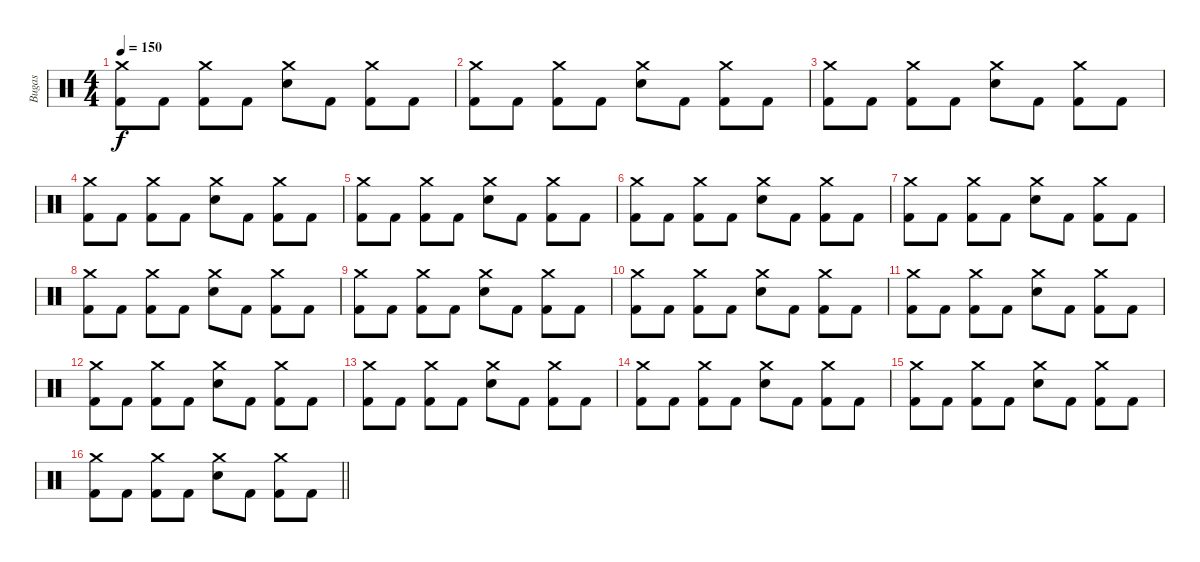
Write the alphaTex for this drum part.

\track ("Bugas" "Bugas") {instrument percussion}
\staff {score}
\articulation defaults
\ts (4 4)
\tempo 150
\clef neutral
\ks c
("Crash medium (hit)" "Kick (hit) 2").8{dy f} "Kick (hit) 2".8 ("Crash medium (hit)" "Kick (hit) 2").8 "Kick (hit) 2".8 ("Crash medium (hit)" "Electric Snare (hit)").8 "Kick (hit) 2".8 ("Crash medium (hit)" "Kick (hit) 2").8 "Kick (hit) 2".8 |
("Crash medium (hit)" "Kick (hit) 2").8 "Kick (hit) 2".8 ("Crash medium (hit)" "Kick (hit) 2").8 "Kick (hit) 2".8 ("Crash medium (hit)" "Electric Snare (hit)").8 "Kick (hit) 2".8 ("Crash medium (hit)" "Kick (hit) 2").8 "Kick (hit) 2".8 |
("Crash medium (hit)" "Kick (hit) 2").8 "Kick (hit) 2".8 ("Crash medium (hit)" "Kick (hit) 2").8 "Kick (hit) 2".8 ("Crash medium (hit)" "Electric Snare (hit)").8 "Kick (hit) 2".8 ("Crash medium (hit)" "Kick (hit) 2").8 "Kick (hit) 2".8 |
("Crash medium (hit)" "Kick (hit) 2").8 "Kick (hit) 2".8 ("Crash medium (hit)" "Kick (hit) 2").8 "Kick (hit) 2".8 ("Crash medium (hit)" "Electric Snare (hit)").8 "Kick (hit) 2".8 ("Crash medium (hit)" "Kick (hit) 2").8 "Kick (hit) 2".8 |
("Crash medium (hit)" "Kick (hit) 2").8 "Kick (hit) 2".8 ("Crash medium (hit)" "Kick (hit) 2").8 "Kick (hit) 2".8 ("Crash medium (hit)" "Electric Snare (hit)").8 "Kick (hit) 2".8 ("Crash medium (hit)" "Kick (hit) 2").8 "Kick (hit) 2".8 |
("Crash medium (hit)" "Kick (hit) 2").8 "Kick (hit) 2".8 ("Crash medium (hit)" "Kick (hit) 2").8 "Kick (hit) 2".8 ("Crash medium (hit)" "Electric Snare (hit)").8 "Kick (hit) 2".8 ("Crash medium (hit)" "Kick (hit) 2").8 "Kick (hit) 2".8 |
("Crash medium (hit)" "Kick (hit) 2").8 "Kick (hit) 2".8 ("Crash medium (hit)" "Kick (hit) 2").8 "Kick (hit) 2".8 ("Crash medium (hit)" "Electric Snare (hit)").8 "Kick (hit) 2".8 ("Crash medium (hit)" "Kick (hit) 2").8 "Kick (hit) 2".8 |
("Crash medium (hit)" "Kick (hit) 2").8 "Kick (hit) 2".8 ("Crash medium (hit)" "Kick (hit) 2").8 "Kick (hit) 2".8 ("Crash medium (hit)" "Electric Snare (hit)").8 "Kick (hit) 2".8 ("Crash medium (hit)" "Kick (hit) 2").8 "Kick (hit) 2".8 |
("Crash medium (hit)" "Kick (hit) 2").8 "Kick (hit) 2".8 ("Crash medium (hit)" "Kick (hit) 2").8 "Kick (hit) 2".8 ("Crash medium (hit)" "Electric Snare (hit)").8 "Kick (hit) 2".8 ("Crash medium (hit)" "Kick (hit) 2").8 "Kick (hit) 2".8 |
("Crash medium (hit)" "Kick (hit) 2").8 "Kick (hit) 2".8 ("Crash medium (hit)" "Kick (hit) 2").8 "Kick (hit) 2".8 ("Crash medium (hit)" "Electric Snare (hit)").8 "Kick (hit) 2".8 ("Crash medium (hit)" "Kick (hit) 2").8 "Kick (hit) 2".8 |
("Crash medium (hit)" "Kick (hit) 2").8 "Kick (hit) 2".8 ("Crash medium (hit)" "Kick (hit) 2").8 "Kick (hit) 2".8 ("Crash medium (hit)" "Electric Snare (hit)").8 "Kick (hit) 2".8 ("Crash medium (hit)" "Kick (hit) 2").8 "Kick (hit) 2".8 |
("Crash medium (hit)" "Kick (hit) 2").8 "Kick (hit) 2".8 ("Crash medium (hit)" "Kick (hit) 2").8 "Kick (hit) 2".8 ("Crash medium (hit)" "Electric Snare (hit)").8 "Kick (hit) 2".8 ("Crash medium (hit)" "Kick (hit) 2").8 "Kick (hit) 2".8 |
("Crash medium (hit)" "Kick (hit) 2").8 "Kick (hit) 2".8 ("Crash medium (hit)" "Kick (hit) 2").8 "Kick (hit) 2".8 ("Crash medium (hit)" "Electric Snare (hit)").8 "Kick (hit) 2".8 ("Crash medium (hit)" "Kick (hit) 2").8 "Kick (hit) 2".8 |
("Crash medium (hit)" "Kick (hit) 2").8 "Kick (hit) 2".8 ("Crash medium (hit)" "Kick (hit) 2").8 "Kick (hit) 2".8 ("Crash medium (hit)" "Electric Snare (hit)").8 "Kick (hit) 2".8 ("Crash medium (hit)" "Kick (hit) 2").8 "Kick (hit) 2".8 |
("Crash medium (hit)" "Kick (hit) 2").8 "Kick (hit) 2".8 ("Crash medium (hit)" "Kick (hit) 2").8 "Kick (hit) 2".8 ("Crash medium (hit)" "Electric Snare (hit)").8 "Kick (hit) 2".8 ("Crash medium (hit)" "Kick (hit) 2").8 "Kick (hit) 2".8 |
\barLineRight lightlight
("Crash medium (hit)" "Kick (hit) 2").8 "Kick (hit) 2".8 ("Crash medium (hit)" "Kick (hit) 2").8 "Kick (hit) 2".8 ("Crash medium (hit)" "Electric Snare (hit)").8 "Kick (hit) 2".8 ("Crash medium (hit)" "Kick (hit) 2").8 "Kick (hit) 2".8
